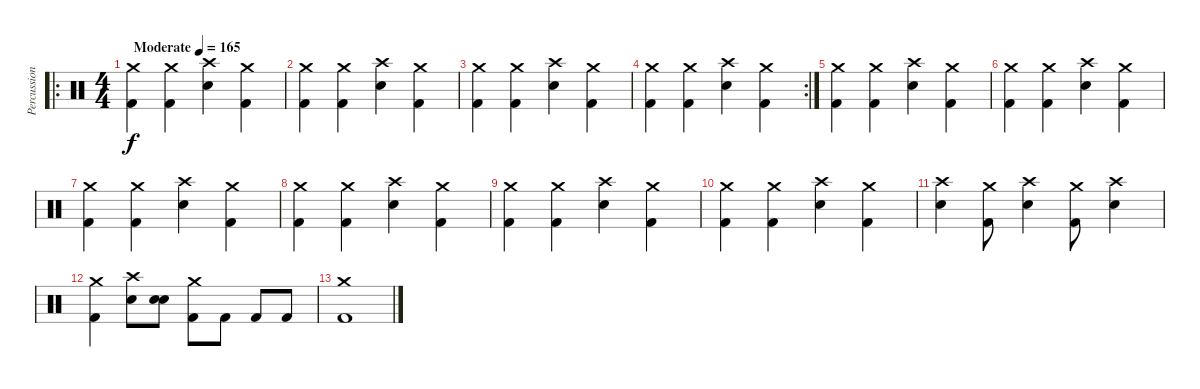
\track ("Percussion" "Percussion") {instrument percussion}
\staff {score}
\articulation defaults
\ro
\ts (4 4)
\tempo (165 "Moderate")
\clef neutral
\ks c
("Crash medium (hit)" "Kick (hit) 2").4{dy f} ("Crash medium (hit)" "Kick (hit) 2").4 ("Crash high (hit)" "Electric Snare (hit)").4 ("Crash medium (hit)" "Kick (hit) 2").4 |
("Crash medium (hit)" "Kick (hit) 2").4 ("Crash medium (hit)" "Kick (hit) 2").4 ("Crash high (hit)" "Electric Snare (hit)").4 ("Crash medium (hit)" "Kick (hit) 2").4 |
("Crash medium (hit)" "Kick (hit) 2").4 ("Crash medium (hit)" "Kick (hit) 2").4 ("Crash high (hit)" "Electric Snare (hit)").4 ("Crash medium (hit)" "Kick (hit) 2").4 |
\rc 2
("Crash medium (hit)" "Kick (hit) 2").4 ("Crash medium (hit)" "Kick (hit) 2").4 ("Crash high (hit)" "Electric Snare (hit)").4 ("Crash medium (hit)" "Kick (hit) 2").4 |
("Crash medium (hit)" "Kick (hit) 2").4 ("Crash medium (hit)" "Kick (hit) 2").4 ("Crash high (hit)" "Electric Snare (hit)").4 ("Crash medium (hit)" "Kick (hit) 2").4 |
("Crash medium (hit)" "Kick (hit) 2").4 ("Crash medium (hit)" "Kick (hit) 2").4 ("Crash high (hit)" "Electric Snare (hit)").4 ("Crash medium (hit)" "Kick (hit) 2").4 |
("Crash medium (hit)" "Kick (hit) 2").4 ("Crash medium (hit)" "Kick (hit) 2").4 ("Crash high (hit)" "Electric Snare (hit)").4 ("Crash medium (hit)" "Kick (hit) 2").4 |
("Crash medium (hit)" "Kick (hit) 2").4 ("Crash medium (hit)" "Kick (hit) 2").4 ("Crash high (hit)" "Electric Snare (hit)").4 ("Crash medium (hit)" "Kick (hit) 2").4 |
("Crash medium (hit)" "Kick (hit) 2").4 ("Crash medium (hit)" "Kick (hit) 2").4 ("Crash high (hit)" "Electric Snare (hit)").4 ("Crash medium (hit)" "Kick (hit) 2").4 |
("Crash medium (hit)" "Kick (hit) 2").4 ("Crash medium (hit)" "Kick (hit) 2").4 ("Crash high (hit)" "Electric Snare (hit)").4 ("Crash medium (hit)" "Kick (hit) 2").4 |
("Crash high (hit)" "Electric Snare (hit)").4 ("Crash medium (hit)" "Kick (hit) 2").8 ("Crash high (hit)" "Electric Snare (hit)").4 ("Crash medium (hit)" "Kick (hit) 2").8 ("Crash high (hit)" "Electric Snare (hit)").4 |
("Crash medium (hit)" "Kick (hit) 2").4 ("Crash high (hit)" "Electric Snare (hit)").8 ("Snare (hit)" "Electric Snare (hit)").8 ("Crash medium (hit)" "Kick (hit) 2").8 "Kick (hit) 2".8 "Kick (hit) 2".8 "Kick (hit) 2".8 |
("Crash medium (hit)" "Kick (hit) 2").1
